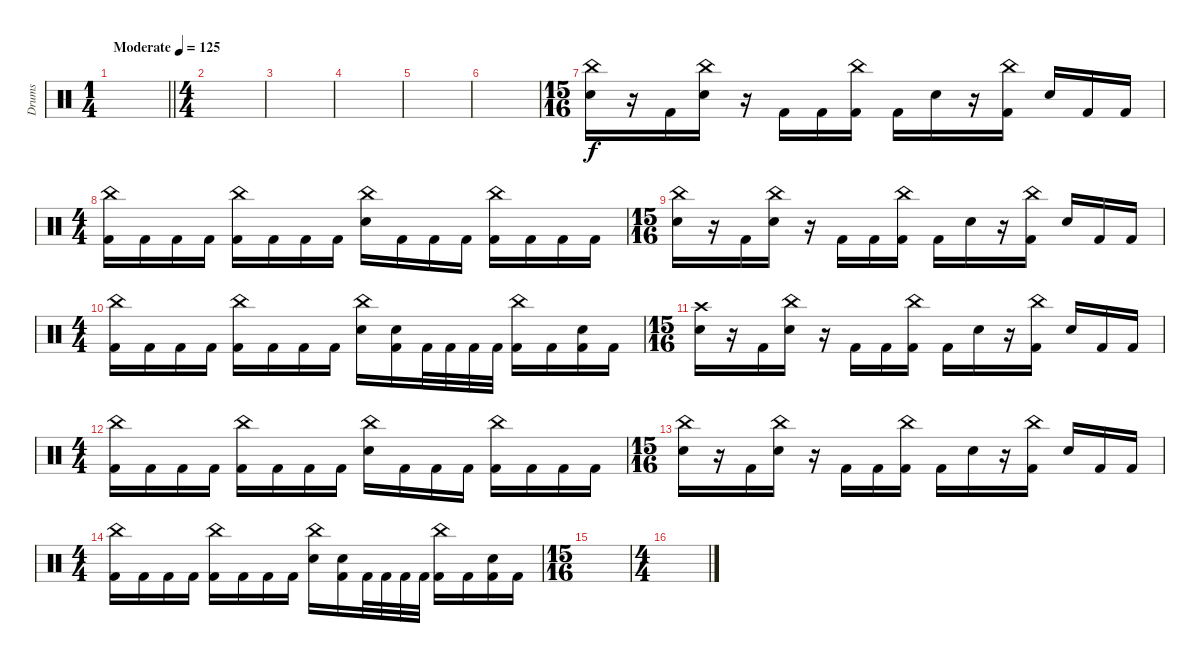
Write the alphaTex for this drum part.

\track ("Drums" "Drums") {instrument percussion}
\staff
\articulation defaults
\ts (1 4)
\tempo (125 "Moderate")
\clef neutral
\barLineRight lightlight
\ks c
|
\ts (4 4)
|
|
|
|
|
\ts (15 16)
("China (hit)" "Electric Snare (hit)").16 r.16 "Kick (hit) 2".16 ("China (hit)" "Electric Snare (hit)").16 r.16 "Kick (hit) 2".16 "Kick (hit) 2".16 ("China (hit)" "Kick (hit) 2").16 "Kick (hit) 2".16 "Electric Snare (hit)".16 r.16 ("China (hit)" "Kick (hit) 2").16 "Electric Snare (hit)".16 "Kick (hit) 2".16 "Kick (hit) 2".16 |
\ts (4 4)
("China (hit)" "Kick (hit) 2").16 "Kick (hit) 2".16 "Kick (hit) 2".16 "Kick (hit) 2".16 ("China (hit)" "Kick (hit) 2").16 "Kick (hit) 2".16 "Kick (hit) 2".16 "Kick (hit) 2".16 ("China (hit)" "Electric Snare (hit)").16 "Kick (hit) 2".16 "Kick (hit) 2".16 "Kick (hit) 2".16 ("China (hit)" "Kick (hit) 2").16 "Kick (hit) 2".16 "Kick (hit) 2".16 "Kick (hit) 2".16 |
\ts (15 16)
("China (hit)" "Electric Snare (hit)").16 r.16 "Kick (hit) 2".16 ("China (hit)" "Electric Snare (hit)").16 r.16 "Kick (hit) 2".16 "Kick (hit) 2".16 ("China (hit)" "Kick (hit) 2").16 "Kick (hit) 2".16 "Electric Snare (hit)".16 r.16 ("China (hit)" "Kick (hit) 2").16 "Electric Snare (hit)".16 "Kick (hit) 2".16 "Kick (hit) 2".16 |
\ts (4 4)
("China (hit)" "Kick (hit) 2").16 "Kick (hit) 2".16 "Kick (hit) 2".16 "Kick (hit) 2".16 ("China (hit)" "Kick (hit) 2").16 "Kick (hit) 2".16 "Kick (hit) 2".16 "Kick (hit) 2".16 ("China (hit)" "Electric Snare (hit)").16 ("Electric Snare (hit)" "Kick (hit) 2").16 "Kick (hit) 2".32 "Kick (hit) 2".32 "Kick (hit) 2".32 "Kick (hit) 2".32 ("China (hit)" "Kick (hit) 2").16 "Kick (hit) 2".16 ("Electric Snare (hit)" "Kick (hit) 2").16 "Kick (hit) 2".16 |
\ts (15 16)
("Crash high (hit)" "Electric Snare (hit)").16 r.16 "Kick (hit) 2".16 ("China (hit)" "Electric Snare (hit)").16 r.16 "Kick (hit) 2".16 "Kick (hit) 2".16 ("China (hit)" "Kick (hit) 2").16 "Kick (hit) 2".16 "Electric Snare (hit)".16 r.16 ("China (hit)" "Kick (hit) 2").16 "Electric Snare (hit)".16 "Kick (hit) 2".16 "Kick (hit) 2".16 |
\ts (4 4)
("China (hit)" "Kick (hit) 2").16 "Kick (hit) 2".16 "Kick (hit) 2".16 "Kick (hit) 2".16 ("China (hit)" "Kick (hit) 2").16 "Kick (hit) 2".16 "Kick (hit) 2".16 "Kick (hit) 2".16 ("China (hit)" "Electric Snare (hit)").16 "Kick (hit) 2".16 "Kick (hit) 2".16 "Kick (hit) 2".16 ("China (hit)" "Kick (hit) 2").16 "Kick (hit) 2".16 "Kick (hit) 2".16 "Kick (hit) 2".16 |
\ts (15 16)
("China (hit)" "Electric Snare (hit)").16 r.16 "Kick (hit) 2".16 ("China (hit)" "Electric Snare (hit)").16 r.16 "Kick (hit) 2".16 "Kick (hit) 2".16 ("China (hit)" "Kick (hit) 2").16 "Kick (hit) 2".16 "Electric Snare (hit)".16 r.16 ("China (hit)" "Kick (hit) 2").16 "Electric Snare (hit)".16 "Kick (hit) 2".16 "Kick (hit) 2".16 |
\ts (4 4)
("China (hit)" "Kick (hit) 2").16 "Kick (hit) 2".16 "Kick (hit) 2".16 "Kick (hit) 2".16 ("China (hit)" "Kick (hit) 2").16 "Kick (hit) 2".16 "Kick (hit) 2".16 "Kick (hit) 2".16 ("China (hit)" "Electric Snare (hit)").16 ("Electric Snare (hit)" "Kick (hit) 2").16 "Kick (hit) 2".32 "Kick (hit) 2".32 "Kick (hit) 2".32 "Kick (hit) 2".32 ("China (hit)" "Kick (hit) 2").16 "Kick (hit) 2".16 ("Electric Snare (hit)" "Kick (hit) 2").16 "Kick (hit) 2".16 |
\ts (15 16)
|
\ts (4 4)
